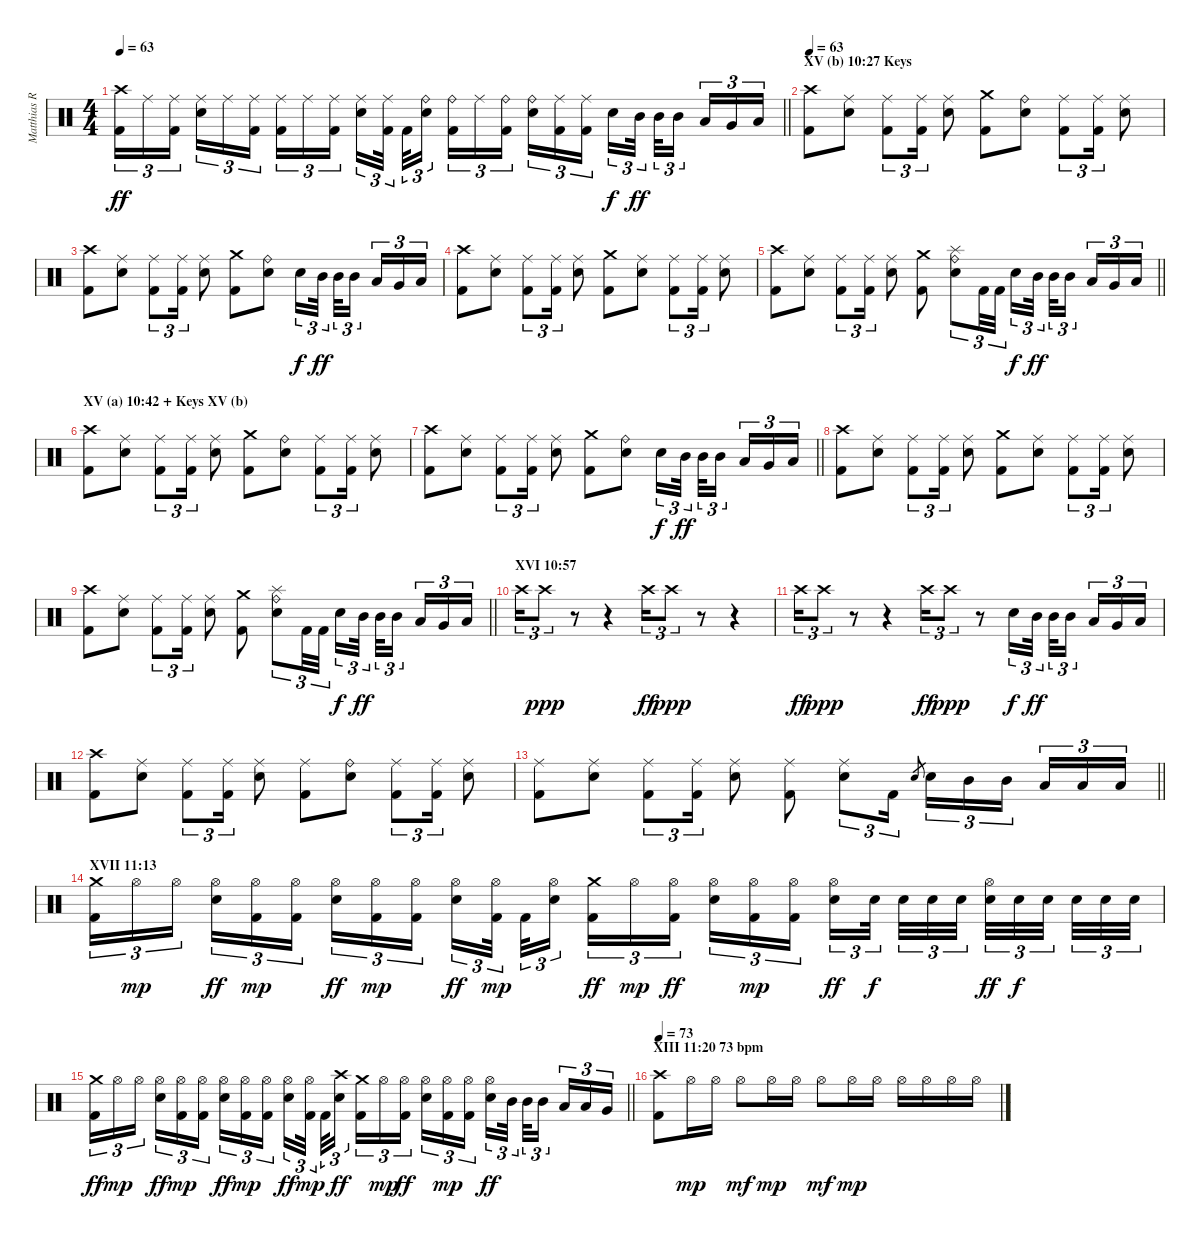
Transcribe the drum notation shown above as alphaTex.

\track ("Matthias R." "Matthias R") {instrument percussion}
\staff {score}
\articulation defaults
\ts (4 4)
\tempo 63
\clef neutral
\barLineRight lightlight
\ks c
("Crash high (hit)" "Kick (hit) 2").16{tu (3 2) dy ff} "Ride (middle)".16{tu (3 2)} ("Ride (middle)" "Kick (hit) 2").16{tu (3 2) beam splitsecondary} ("Ride (middle)" "Electric Snare (hit)").16{tu (3 2)} "Ride (middle)".16{tu (3 2)} ("Ride (middle)" "Kick (hit) 2").16{tu (3 2)} ("Ride (middle)" "Kick (hit) 2").16{tu (3 2)} "Ride (middle)".16{tu (3 2)} ("Ride (middle)" "Kick (hit) 2").16{tu (3 2) beam splitsecondary} ("Ride (middle)" "Electric Snare (hit)").16{tu (3 2)} ("Ride (middle)" "Kick (hit) 2").32{tu (3 2) beam splitsecondary} "Kick (hit) 2".32{tu (3 2)} ("Ride (bell)" "Electric Snare (hit)").16{tu (3 2)} ("Ride (bell)" "Kick (hit) 2").16{tu (3 2)} "Ride (middle)".16{tu (3 2)} ("Ride (bell)" "Kick (hit) 2").16{tu (3 2) beam splitsecondary} ("Ride (bell)" "Electric Snare (hit)").16{tu (3 2)} ("Ride (middle)" "Kick (hit) 2").16{tu (3 2)} ("Ride (middle)" "Kick (hit) 2").16{tu (3 2)} "Electric Snare (hit)".16{tu (3 2) dy f} "Mid Tom (hit)".32{tu (3 2) dy ff beam splitsecondary} "Mid Tom (hit)".32{tu (3 2)} "Mid Tom (hit)".16{tu (3 2) beam splitsecondary} "Low Tom (hit)".16{tu (3 2)} "Very Low Tom (hit)".16{tu (3 2)} "Low Tom (hit)".16{tu (3 2)} |
\section ("" "XV (b) 10:27 Keys")
\tempo 63
("Crash high (hit)" "Kick (hit) 2").8 ("Ride (middle)" "Electric Snare (hit)").8 ("Ride (middle)" "Kick (hit) 2").8{tu (3 2)} ("Ride (middle)" "Kick (hit) 2").16{tu (3 2)} ("Ride (middle)" "Electric Snare (hit)").8 ("Crash medium (hit)" "Kick (hit) 2").8 ("Ride (bell)" "Electric Snare (hit)").8 ("Ride (middle)" "Kick (hit) 2").8{tu (3 2)} ("Ride (middle)" "Kick (hit) 2").16{tu (3 2)} ("Ride (middle)" "Electric Snare (hit)").8 |
("Crash high (hit)" "Kick (hit) 2").8 ("Ride (middle)" "Electric Snare (hit)").8 ("Ride (middle)" "Kick (hit) 2").8{tu (3 2)} ("Ride (middle)" "Kick (hit) 2").16{tu (3 2)} ("Ride (middle)" "Electric Snare (hit)").8 ("Crash medium (hit)" "Kick (hit) 2").8 ("Ride (bell)" "Electric Snare (hit)").8 "Electric Snare (hit)".16{tu (3 2) dy f} "Mid Tom (hit)".32{tu (3 2) dy ff beam splitsecondary} "Mid Tom (hit)".32{tu (3 2)} "Mid Tom (hit)".16{tu (3 2) beam splitsecondary} "Low Tom (hit)".16{tu (3 2)} "Very Low Tom (hit)".16{tu (3 2)} "Low Tom (hit)".16{tu (3 2)} |
("Crash high (hit)" "Kick (hit) 2").8 ("Ride (middle)" "Electric Snare (hit)").8 ("Ride (middle)" "Kick (hit) 2").8{tu (3 2)} ("Ride (middle)" "Kick (hit) 2").16{tu (3 2)} ("Ride (middle)" "Electric Snare (hit)").8 ("Crash medium (hit)" "Kick (hit) 2").8 ("Ride (middle)" "Electric Snare (hit)").8 ("Ride (middle)" "Kick (hit) 2").8{tu (3 2)} ("Ride (middle)" "Kick (hit) 2").16{tu (3 2)} ("Ride (middle)" "Electric Snare (hit)").8 |
\barLineRight lightlight
("Crash high (hit)" "Kick (hit) 2").8 ("Ride (middle)" "Electric Snare (hit)").8 ("Ride (middle)" "Kick (hit) 2").8{tu (3 2)} ("Ride (middle)" "Kick (hit) 2").16{tu (3 2)} ("Ride (middle)" "Electric Snare (hit)").8 ("Crash medium (hit)" "Kick (hit) 2").8 ("Splash (hit)" "Ride (bell)" "Electric Snare (hit)").8{tu (3 2)} "Kick (hit) 2".32{tu (3 2)} "Kick (hit) 2".32{tu (3 2)} "Electric Snare (hit)".16{tu (3 2) dy f} "Mid Tom (hit)".32{tu (3 2) dy ff beam splitsecondary} "Mid Tom (hit)".32{tu (3 2)} "Mid Tom (hit)".16{tu (3 2) beam splitsecondary} "Low Tom (hit)".16{tu (3 2)} "Very Low Tom (hit)".16{tu (3 2)} "Low Tom (hit)".16{tu (3 2)} |
\section ("" "XV (a) 10:42 + Keys XV (b)")
("Crash high (hit)" "Kick (hit) 2").8 ("Ride (middle)" "Electric Snare (hit)").8 ("Ride (middle)" "Kick (hit) 2").8{tu (3 2)} ("Ride (middle)" "Kick (hit) 2").16{tu (3 2)} ("Ride (middle)" "Electric Snare (hit)").8 ("Crash medium (hit)" "Kick (hit) 2").8 ("Ride (bell)" "Electric Snare (hit)").8 ("Ride (middle)" "Kick (hit) 2").8{tu (3 2)} ("Ride (middle)" "Kick (hit) 2").16{tu (3 2)} ("Ride (middle)" "Electric Snare (hit)").8 |
\barLineRight lightlight
("Crash high (hit)" "Kick (hit) 2").8 ("Ride (middle)" "Electric Snare (hit)").8 ("Ride (middle)" "Kick (hit) 2").8{tu (3 2)} ("Ride (middle)" "Kick (hit) 2").16{tu (3 2)} ("Ride (middle)" "Electric Snare (hit)").8 ("Crash medium (hit)" "Kick (hit) 2").8 ("Ride (bell)" "Electric Snare (hit)").8 "Electric Snare (hit)".16{tu (3 2) dy f} "Mid Tom (hit)".32{tu (3 2) dy ff beam splitsecondary} "Mid Tom (hit)".32{tu (3 2)} "Mid Tom (hit)".16{tu (3 2) beam splitsecondary} "Low Tom (hit)".16{tu (3 2)} "Very Low Tom (hit)".16{tu (3 2)} "Low Tom (hit)".16{tu (3 2)} |
("Crash high (hit)" "Kick (hit) 2").8 ("Ride (middle)" "Electric Snare (hit)").8 ("Ride (middle)" "Kick (hit) 2").8{tu (3 2)} ("Ride (middle)" "Kick (hit) 2").16{tu (3 2)} ("Ride (middle)" "Electric Snare (hit)").8 ("Crash medium (hit)" "Kick (hit) 2").8 ("Ride (middle)" "Electric Snare (hit)").8 ("Ride (middle)" "Kick (hit) 2").8{tu (3 2)} ("Ride (middle)" "Kick (hit) 2").16{tu (3 2)} ("Ride (middle)" "Electric Snare (hit)").8 |
\barLineRight lightlight
("Crash high (hit)" "Kick (hit) 2").8 ("Ride (middle)" "Electric Snare (hit)").8 ("Ride (middle)" "Kick (hit) 2").8{tu (3 2)} ("Ride (middle)" "Kick (hit) 2").16{tu (3 2)} ("Ride (middle)" "Electric Snare (hit)").8 ("Crash medium (hit)" "Kick (hit) 2").8 ("Splash (hit)" "Ride (bell)" "Electric Snare (hit)").8{tu (3 2)} "Kick (hit) 2".32{tu (3 2)} "Kick (hit) 2".32{tu (3 2)} "Electric Snare (hit)".16{tu (3 2) dy f} "Mid Tom (hit)".32{tu (3 2) dy ff beam splitsecondary} "Mid Tom (hit)".32{tu (3 2)} "Mid Tom (hit)".16{tu (3 2) beam splitsecondary} "Low Tom (hit)".16{tu (3 2)} "Very Low Tom (hit)".16{tu (3 2)} "Low Tom (hit)".16{tu (3 2)} |
\section ("" "XVI 10:57")
"Crash high (hit)".16{tu (3 2)} "Crash high (hit)".8{tu (3 2) dy ppp} r.8 r.4 "Crash high (hit)".16{tu (3 2) dy ff} "Crash high (hit)".8{tu (3 2) dy ppp} r.8 r.4 |
"Crash high (hit)".16{tu (3 2) dy ff} "Crash high (hit)".8{tu (3 2) dy ppp} r.8 r.4 "Crash high (hit)".16{tu (3 2) dy ff} "Crash high (hit)".8{tu (3 2) dy ppp} r.8 "Electric Snare (hit)".16{tu (3 2) dy f} "Mid Tom (hit)".32{tu (3 2) dy ff beam splitsecondary} "Mid Tom (hit)".32{tu (3 2)} "Mid Tom (hit)".16{tu (3 2) beam splitsecondary} "Low Tom (hit)".16{tu (3 2)} "Very Low Tom (hit)".16{tu (3 2)} "Low Tom (hit)".16{tu (3 2)} |
("Crash high (hit)" "Kick (hit) 2").8 ("Ride (middle)" "Electric Snare (hit)").8 ("Ride (middle)" "Kick (hit) 2").8{tu (3 2)} ("Ride (middle)" "Kick (hit) 2").16{tu (3 2)} ("Ride (middle)" "Electric Snare (hit)").8 ("Ride (middle)" "Kick (hit) 2").8 ("Ride (bell)" "Electric Snare (hit)").8 ("Ride (middle)" "Kick (hit) 2").8{tu (3 2)} ("Ride (middle)" "Kick (hit) 2").16{tu (3 2)} ("Ride (middle)" "Electric Snare (hit)").8 |
\barLineRight lightlight
("Ride (middle)" "Kick (hit) 2").8 ("Ride (middle)" "Electric Snare (hit)").8 ("Ride (middle)" "Kick (hit) 2").8{tu (3 2)} ("Ride (middle)" "Kick (hit) 2").16{tu (3 2)} ("Ride (middle)" "Electric Snare (hit)").8 ("Ride (middle)" "Kick (hit) 2").8 ("Ride (middle)" "Electric Snare (hit)").8{tu (3 2)} "Kick (hit) 2".16{tu (3 2)} "Electric Snare (hit)".8{gr} "Electric Snare (hit)".16{tu (3 2)} "Mid Tom (hit)".16{tu (3 2)} "Mid Tom (hit)".16{tu (3 2) beam splitsecondary} "Low Tom (hit)".16{tu (3 2)} "Low Tom (hit)".16{tu (3 2)} "Low Tom (hit)".16{tu (3 2)} |
\section ("" "XVII 11:13")
("Crash medium (hit)" "Kick (hit) 2").16{tu (3 2)} "Hi-Hat (open)".16{tu (3 2) dy mp} "Hi-Hat (open)".16{tu (3 2) beam splitsecondary} ("Hi-Hat (open)" "Electric Snare (hit)").16{tu (3 2) dy ff} ("Hi-Hat (open)" "Kick (hit) 2").16{tu (3 2) dy mp} ("Hi-Hat (open)" "Kick (hit) 2").16{tu (3 2)} ("Hi-Hat (open)" "Electric Snare (hit)").16{tu (3 2) dy ff} ("Hi-Hat (open)" "Kick (hit) 2").16{tu (3 2) dy mp} ("Hi-Hat (open)" "Kick (hit) 2").16{tu (3 2) beam splitsecondary} ("Hi-Hat (open)" "Electric Snare (hit)").16{tu (3 2) dy ff} ("Hi-Hat (open)" "Kick (hit) 2").32{tu (3 2) dy mp beam splitsecondary} "Kick (hit) 2".32{tu (3 2)} ("Hi-Hat (open)" "Electric Snare (hit)").16{tu (3 2)} ("Crash medium (hit)" "Kick (hit) 2").16{tu (3 2) dy ff} "Hi-Hat (open)".16{tu (3 2) dy mp} ("Hi-Hat (open)" "Kick (hit) 2").16{tu (3 2) dy ff beam splitsecondary} ("Hi-Hat (open)" "Electric Snare (hit)").16{tu (3 2)} ("Hi-Hat (open)" "Kick (hit) 2").16{tu (3 2) dy mp} ("Hi-Hat (open)" "Kick (hit) 2").16{tu (3 2)} ("Hi-Hat (open)" "Electric Snare (hit)").16{tu (3 2) dy ff} "Electric Snare (hit)".32{tu (3 2) dy f beam splitsecondary} "Electric Snare (hit)".32{tu (3 2)} "Electric Snare (hit)".32{tu (3 2)} "Electric Snare (hit)".32{tu (3 2) beam splitsecondary} ("Hi-Hat (open)" "Electric Snare (hit)").32{tu (3 2) dy ff} "Electric Snare (hit)".32{tu (3 2) dy f} "Electric Snare (hit)".32{tu (3 2) beam splitsecondary} "Electric Snare (hit)".32{tu (3 2)} "Electric Snare (hit)".32{tu (3 2)} "Electric Snare (hit)".32{tu (3 2)} |
\barLineRight lightlight
("Crash medium (hit)" "Kick (hit) 2").16{tu (3 2) dy ff} "Hi-Hat (open)".16{tu (3 2) dy mp} "Hi-Hat (open)".16{tu (3 2) beam splitsecondary} ("Hi-Hat (open)" "Electric Snare (hit)").16{tu (3 2) dy ff} ("Hi-Hat (open)" "Kick (hit) 2").16{tu (3 2) dy mp} ("Hi-Hat (open)" "Kick (hit) 2").16{tu (3 2)} ("Hi-Hat (open)" "Electric Snare (hit)").16{tu (3 2) dy ff} ("Hi-Hat (open)" "Kick (hit) 2").16{tu (3 2) dy mp} ("Hi-Hat (open)" "Kick (hit) 2").16{tu (3 2) beam splitsecondary} ("Hi-Hat (open)" "Electric Snare (hit)").16{tu (3 2) dy ff} ("Hi-Hat (open)" "Kick (hit) 2").32{tu (3 2) dy mp beam splitsecondary} "Kick (hit) 2".32{tu (3 2)} ("Crash high (hit)" "Electric Snare (hit)").16{tu (3 2) dy ff} ("Crash medium (hit)" "Kick (hit) 2").16{tu (3 2)} "Hi-Hat (open)".16{tu (3 2) dy mp} ("Hi-Hat (open)" "Kick (hit) 2").16{tu (3 2) dy ff beam splitsecondary} ("Hi-Hat (open)" "Electric Snare (hit)").16{tu (3 2)} ("Hi-Hat (open)" "Kick (hit) 2").16{tu (3 2) dy mp} ("Hi-Hat (open)" "Kick (hit) 2").16{tu (3 2)} ("Hi-Hat (open)" "Electric Snare (hit)").16{tu (3 2) dy ff} "Mid Tom (hit)".32{tu (3 2) beam splitsecondary} "Mid Tom (hit)".32{tu (3 2)} "Mid Tom (hit)".16{tu (3 2) beam splitsecondary} "Low Tom (hit)".16{tu (3 2)} "Low Tom (hit)".16{tu (3 2)} "Very Low Tom (hit)".16{tu (3 2)} |
\section ("" "XIII 11:20 73 bpm")
\tempo 73
("Crash high (hit)" "Kick (hit) 2").8 "Hi-Hat (open)".16{dy mp} "Hi-Hat (open)".16 "Hi-Hat (open)".8{dy mf} "Hi-Hat (open)".16{dy mp} "Hi-Hat (open)".16 "Hi-Hat (open)".8{dy mf} "Hi-Hat (open)".16{dy mp} "Hi-Hat (open)".16 "Hi-Hat (open)".16 "Hi-Hat (open)".16 "Hi-Hat (open)".16 "Hi-Hat (open)".16
